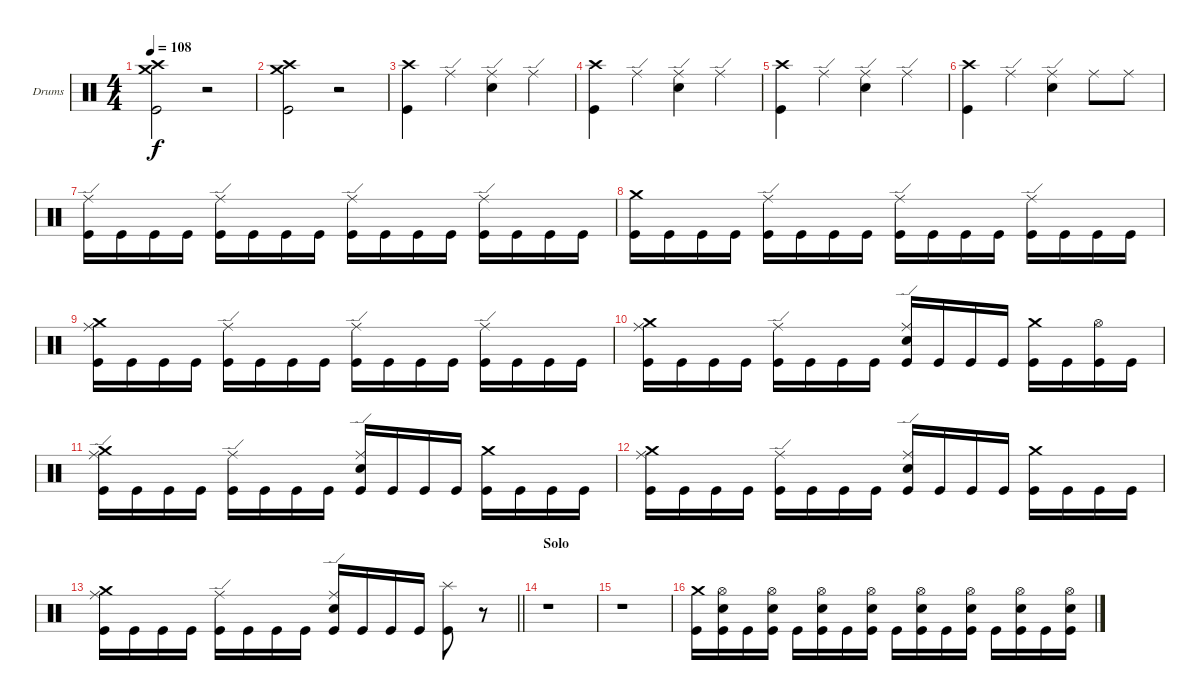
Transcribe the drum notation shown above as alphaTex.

\bracketExtendMode groupsimilarinstruments
\firstSystemTrackNameOrientation horizontal
\otherSystemsTrackNameOrientation horizontal
\track ("Drumkit" "Drums") {instrument percussion}
\staff {score}
\articulation defaults
\ts (4 4)
\tempo 108
\clef neutral
\ks c
("Crash high (hit)" "Crash medium (hit)" "Kick (hit)").2{dy f} r.2 |
("Crash high (hit)" "Crash medium (hit)" "Kick (hit)").2 r.2 |
("Crash high (hit)" "Kick (hit)").4 "Ride (edge)".4 ("Ride (edge)" "Snare (hit) 2").4 "Ride (edge)".4 |
("Crash high (hit)" "Kick (hit)").4 "Ride (edge)".4 ("Ride (edge)" "Snare (hit) 2").4 "Ride (edge)".4 |
("Crash high (hit)" "Kick (hit)").4 "Ride (edge)".4 ("Ride (edge)" "Snare (hit) 2").4 "Ride (edge)".4 |
("Crash high (hit)" "Kick (hit)").4 "Ride (edge)".4 ("Ride (edge)" "Snare (hit) 2").4 "Ride (middle)".8 "Ride (middle)".8 |
("Ride (edge)" "Kick (hit)").16 "Kick (hit)".16 "Kick (hit)".16 "Kick (hit)".16 ("Ride (edge)" "Kick (hit)").16 "Kick (hit)".16 "Kick (hit)".16 "Kick (hit)".16 ("Ride (edge)" "Kick (hit)").16 "Kick (hit)".16 "Kick (hit)".16 "Kick (hit)".16 ("Ride (edge)" "Kick (hit)").16 "Kick (hit)".16 "Kick (hit)".16 "Kick (hit)".16 |
("Crash medium (hit)" "Kick (hit)").16 "Kick (hit)".16 "Kick (hit)".16 "Kick (hit)".16 ("Ride (edge)" "Kick (hit)").16 "Kick (hit)".16 "Kick (hit)".16 "Kick (hit)".16 ("Ride (edge)" "Kick (hit)").16 "Kick (hit)".16 "Kick (hit)".16 "Kick (hit)".16 ("Ride (edge)" "Kick (hit)").16 "Kick (hit)".16 "Kick (hit)".16 "Kick (hit)".16 |
("Crash medium (hit)" "Ride (middle)" "Kick (hit)").16 "Kick (hit)".16 "Kick (hit)".16 "Kick (hit)".16 ("Ride (edge)" "Kick (hit)").16 "Kick (hit)".16 "Kick (hit)".16 "Kick (hit)".16 ("Ride (edge)" "Kick (hit)").16 "Kick (hit)".16 "Kick (hit)".16 "Kick (hit)".16 ("Ride (edge)" "Kick (hit)").16 "Kick (hit)".16 "Kick (hit)".16 "Kick (hit)".16 |
("Crash medium (hit)" "Ride (middle)" "Kick (hit)").16 "Kick (hit)".16 "Kick (hit)".16 "Kick (hit)".16 ("Ride (edge)" "Kick (hit)").16 "Kick (hit)".16 "Kick (hit)".16 "Kick (hit)".16 ("Ride (edge)" "Snare (hit) 2" "Kick (hit)").16 "Kick (hit)".16 "Kick (hit)".16 "Kick (hit)".16 ("Crash medium (hit)" "Kick (hit)").16 "Kick (hit)".16 ("Hi-Hat (open)" "Kick (hit)").16 "Kick (hit)".16 |
("Ride (edge)" "Crash medium (hit)" "Kick (hit)").16 "Kick (hit)".16 "Kick (hit)".16 "Kick (hit)".16 ("Ride (edge)" "Kick (hit)").16 "Kick (hit)".16 "Kick (hit)".16 "Kick (hit)".16 ("Ride (edge)" "Snare (hit) 2" "Kick (hit)").16 "Kick (hit)".16 "Kick (hit)".16 "Kick (hit)".16 ("Crash medium (hit)" "Kick (hit)").16 "Kick (hit)".16 "Kick (hit)".16 "Kick (hit)".16 |
("Crash medium (hit)" "Ride (middle)" "Kick (hit)").16 "Kick (hit)".16 "Kick (hit)".16 "Kick (hit)".16 ("Ride (edge)" "Kick (hit)").16 "Kick (hit)".16 "Kick (hit)".16 "Kick (hit)".16 ("Ride (edge)" "Snare (hit) 2" "Kick (hit)").16 "Kick (hit)".16 "Kick (hit)".16 "Kick (hit)".16 ("Crash medium (hit)" "Kick (hit)").16 "Kick (hit)".16 "Kick (hit)".16 "Kick (hit)".16 |
\barLineRight lightlight
("Crash medium (hit)" "Ride (middle)" "Kick (hit)").16 "Kick (hit)".16 "Kick (hit)".16 "Kick (hit)".16 ("Ride (edge)" "Kick (hit)").16 "Kick (hit)".16 "Kick (hit)".16 "Kick (hit)".16 ("Ride (edge)" "Snare (hit) 2" "Kick (hit)").16 "Kick (hit)".16 "Kick (hit)".16 "Kick (hit)".16 ("Splash (hit)" "Kick (hit)").8 r.8 |
\section ("" "Solo")
r.1 |
r.1 |
("Crash medium (hit)" "Kick (hit)").16 ("Hi-Hat (open)" "Snare (hit) 2" "Kick (hit)").16 "Kick (hit)".16 ("Hi-Hat (open)" "Snare (hit) 2" "Kick (hit)").16 "Kick (hit)".16 ("Hi-Hat (open)" "Snare (hit) 2" "Kick (hit)").16 "Kick (hit)".16 ("Hi-Hat (open)" "Snare (hit) 2" "Kick (hit)").16 "Kick (hit)".16 ("Hi-Hat (open)" "Snare (hit) 2" "Kick (hit)").16 "Kick (hit)".16 ("Hi-Hat (open)" "Snare (hit) 2" "Kick (hit)").16 "Kick (hit)".16 ("Hi-Hat (open)" "Snare (hit) 2" "Kick (hit)").16 "Kick (hit)".16 ("Hi-Hat (open)" "Snare (hit) 2" "Kick (hit)").16
